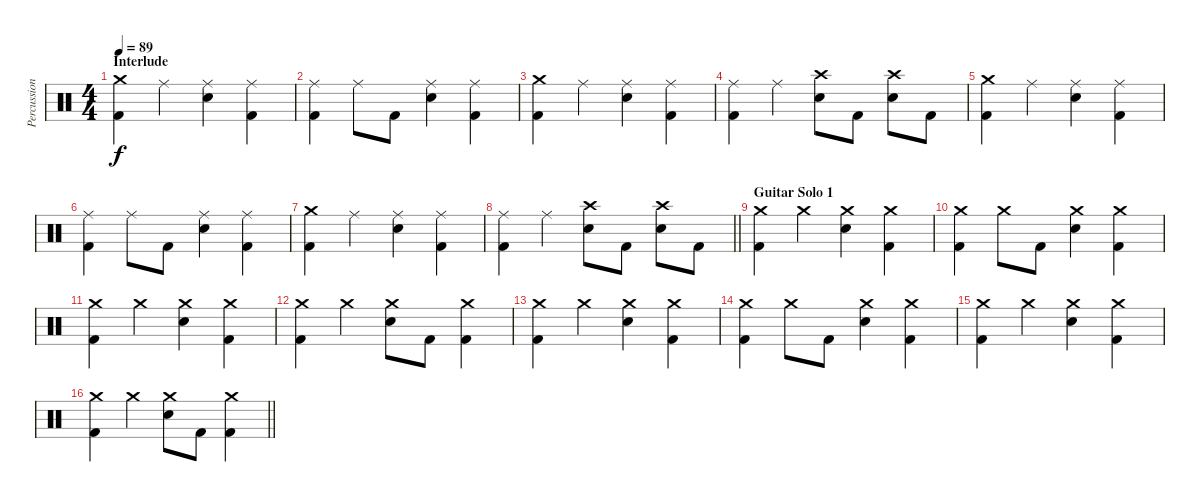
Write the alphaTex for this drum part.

\track ("Percussion" "Percussion") {instrument percussion}
\staff {score}
\articulation defaults
\ts (4 4)
\section ("" "Interlude")
\tempo 89
\clef neutral
\ks c
("Crash medium (hit)" "Kick (hit) 2").4{dy f} "Ride (middle)".4 ("Ride (middle)" "Electric Snare (hit)").4 ("Ride (middle)" "Kick (hit) 2").4 |
("Ride (middle)" "Kick (hit) 2").4 "Ride (middle)".8 "Kick (hit) 2".8 ("Ride (middle)" "Electric Snare (hit)").4 ("Ride (middle)" "Kick (hit) 2").4 |
("Crash medium (hit)" "Kick (hit) 2").4 "Ride (middle)".4 ("Ride (middle)" "Electric Snare (hit)").4 ("Ride (middle)" "Kick (hit) 2").4 |
("Ride (middle)" "Kick (hit) 2").4 "Ride (middle)".4 ("Crash high (hit)" "Electric Snare (hit)").8 "Kick (hit) 2".8 ("Crash high (hit)" "Electric Snare (hit)").8 "Kick (hit) 2".8 |
("Crash medium (hit)" "Kick (hit) 2").4 "Ride (middle)".4 ("Ride (middle)" "Electric Snare (hit)").4 ("Ride (middle)" "Kick (hit) 2").4 |
("Ride (middle)" "Kick (hit) 2").4 "Ride (middle)".8 "Kick (hit) 2".8 ("Ride (middle)" "Electric Snare (hit)").4 ("Ride (middle)" "Kick (hit) 2").4 |
("Crash medium (hit)" "Kick (hit) 2").4 "Ride (middle)".4 ("Ride (middle)" "Electric Snare (hit)").4 ("Ride (middle)" "Kick (hit) 2").4 |
\barLineRight lightlight
("Ride (middle)" "Kick (hit) 2").4 "Ride (middle)".4 ("Crash high (hit)" "Electric Snare (hit)").8 "Kick (hit) 2".8 ("Crash high (hit)" "Electric Snare (hit)").8 "Kick (hit) 2".8 |
\section ("" "Guitar Solo 1")
("Crash medium (hit)" "Kick (hit) 2").4 "Crash medium (hit)".4 ("Crash medium (hit)" "Electric Snare (hit)").4 ("Crash medium (hit)" "Kick (hit) 2").4 |
("Crash medium (hit)" "Kick (hit) 2").4 "Crash medium (hit)".8 "Kick (hit) 2".8 ("Crash medium (hit)" "Electric Snare (hit)").4 ("Crash medium (hit)" "Kick (hit) 2").4 |
("Crash medium (hit)" "Kick (hit) 2").4 "Crash medium (hit)".4 ("Crash medium (hit)" "Electric Snare (hit)").4 ("Crash medium (hit)" "Kick (hit) 2").4 |
("Crash medium (hit)" "Kick (hit) 2").4 "Crash medium (hit)".4 ("Crash medium (hit)" "Electric Snare (hit)").8 "Kick (hit) 2".8 ("Crash medium (hit)" "Kick (hit) 2").4 |
("Crash medium (hit)" "Kick (hit) 2").4 "Crash medium (hit)".4 ("Crash medium (hit)" "Electric Snare (hit)").4 ("Crash medium (hit)" "Kick (hit) 2").4 |
("Crash medium (hit)" "Kick (hit) 2").4 "Crash medium (hit)".8 "Kick (hit) 2".8 ("Crash medium (hit)" "Electric Snare (hit)").4 ("Crash medium (hit)" "Kick (hit) 2").4 |
("Crash medium (hit)" "Kick (hit) 2").4 "Crash medium (hit)".4 ("Crash medium (hit)" "Electric Snare (hit)").4 ("Crash medium (hit)" "Kick (hit) 2").4 |
\barLineRight lightlight
("Crash medium (hit)" "Kick (hit) 2").4 "Crash medium (hit)".4 ("Crash medium (hit)" "Electric Snare (hit)").8 "Kick (hit) 2".8 ("Crash medium (hit)" "Kick (hit) 2").4
